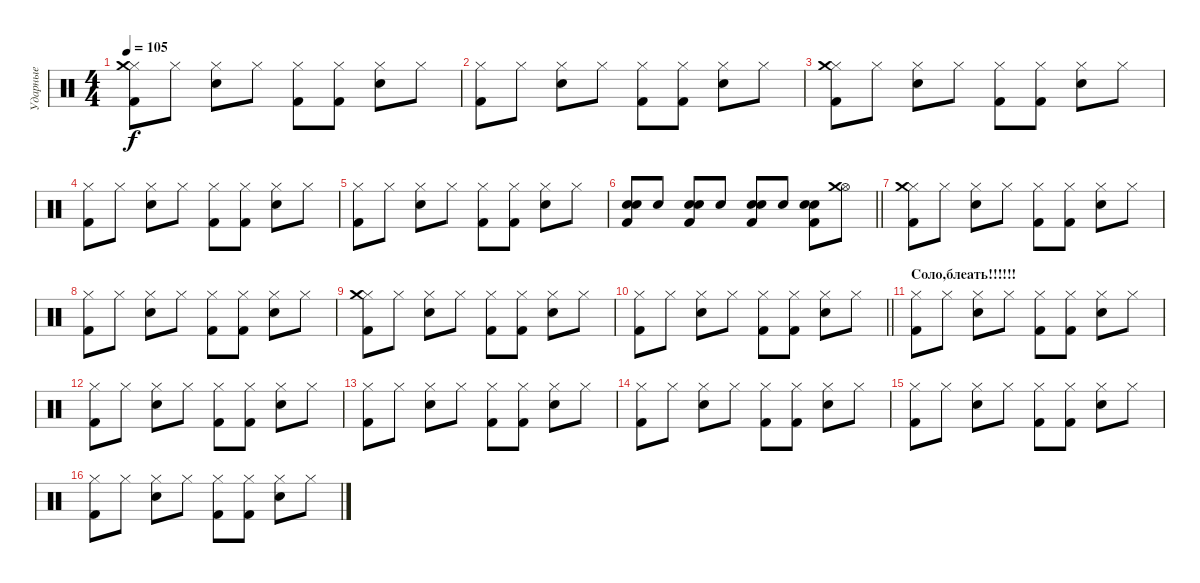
\track ("Ударные" "Ударные") {instrument percussion}
\staff {score}
\articulation defaults
\ts (4 4)
\tempo 105
\clef neutral
\ks c
("Hi-Hat (closed)" "Kick (hit) 2" "Crash medium (hit)").8{dy f} "Hi-Hat (closed)".8 ("Hi-Hat (closed)" "Electric Snare (hit)").8 "Hi-Hat (closed)".8 ("Hi-Hat (closed)" "Kick (hit) 2").8 ("Hi-Hat (closed)" "Kick (hit) 2").8 ("Hi-Hat (closed)" "Electric Snare (hit)").8 "Hi-Hat (closed)".8 |
("Hi-Hat (closed)" "Kick (hit) 2").8 "Hi-Hat (closed)".8 ("Hi-Hat (closed)" "Electric Snare (hit)").8 "Hi-Hat (closed)".8 ("Hi-Hat (closed)" "Kick (hit) 2").8 ("Hi-Hat (closed)" "Kick (hit) 2").8 ("Hi-Hat (closed)" "Electric Snare (hit)").8 "Hi-Hat (closed)".8 |
("Hi-Hat (closed)" "Kick (hit) 2" "Crash medium (hit)").8 "Hi-Hat (closed)".8 ("Hi-Hat (closed)" "Electric Snare (hit)").8 "Hi-Hat (closed)".8 ("Hi-Hat (closed)" "Kick (hit) 2").8 ("Hi-Hat (closed)" "Kick (hit) 2").8 ("Hi-Hat (closed)" "Electric Snare (hit)").8 "Hi-Hat (closed)".8 |
("Hi-Hat (closed)" "Kick (hit) 2").8 "Hi-Hat (closed)".8 ("Hi-Hat (closed)" "Electric Snare (hit)").8 "Hi-Hat (closed)".8 ("Hi-Hat (closed)" "Kick (hit) 2").8 ("Hi-Hat (closed)" "Kick (hit) 2").8 ("Hi-Hat (closed)" "Electric Snare (hit)").8 "Hi-Hat (closed)".8 |
("Hi-Hat (closed)" "Kick (hit) 2").8 "Hi-Hat (closed)".8 ("Hi-Hat (closed)" "Electric Snare (hit)").8 "Hi-Hat (closed)".8 ("Hi-Hat (closed)" "Kick (hit) 2").8 ("Hi-Hat (closed)" "Kick (hit) 2").8 ("Hi-Hat (closed)" "Electric Snare (hit)").8 "Hi-Hat (closed)".8 |
\barLineRight lightlight
("Electric Snare (hit)" "Kick (hit) 2" "Electric Snare (hit)").8 "Electric Snare (hit)".8 ("Electric Snare (hit)" "Kick (hit) 2" "Electric Snare (hit)").8 "Electric Snare (hit)".8 ("Electric Snare (hit)" "Kick (hit) 2" "Electric Snare (hit)").8 "Electric Snare (hit)".8 ("Electric Snare (hit)" "Kick (hit) 2" "Electric Snare (hit)").8 ("Hi-Hat (open)" "Crash medium (hit)").8 |
\section ("" "")
("Hi-Hat (closed)" "Kick (hit) 2" "Crash medium (hit)").8 "Hi-Hat (closed)".8 ("Hi-Hat (closed)" "Electric Snare (hit)").8 "Hi-Hat (closed)".8 ("Hi-Hat (closed)" "Kick (hit) 2").8 ("Hi-Hat (closed)" "Kick (hit) 2").8 ("Hi-Hat (closed)" "Electric Snare (hit)").8 "Hi-Hat (closed)".8 |
("Hi-Hat (closed)" "Kick (hit) 2").8 "Hi-Hat (closed)".8 ("Hi-Hat (closed)" "Electric Snare (hit)").8 "Hi-Hat (closed)".8 ("Hi-Hat (closed)" "Kick (hit) 2").8 ("Hi-Hat (closed)" "Kick (hit) 2").8 ("Hi-Hat (closed)" "Electric Snare (hit)").8 "Hi-Hat (closed)".8 |
("Hi-Hat (closed)" "Kick (hit) 2" "Crash medium (hit)").8 "Hi-Hat (closed)".8 ("Hi-Hat (closed)" "Electric Snare (hit)").8 "Hi-Hat (closed)".8 ("Hi-Hat (closed)" "Kick (hit) 2").8 ("Hi-Hat (closed)" "Kick (hit) 2").8 ("Hi-Hat (closed)" "Electric Snare (hit)").8 "Hi-Hat (closed)".8 |
\barLineRight lightlight
("Hi-Hat (closed)" "Kick (hit) 2").8 "Hi-Hat (closed)".8 ("Hi-Hat (closed)" "Electric Snare (hit)").8 "Hi-Hat (closed)".8 ("Hi-Hat (closed)" "Kick (hit) 2").8 ("Hi-Hat (closed)" "Kick (hit) 2").8 ("Hi-Hat (closed)" "Electric Snare (hit)").8 "Hi-Hat (closed)".8 |
\section ("" "Соло,блеать!!!!!!")
("Hi-Hat (closed)" "Kick (hit) 2").8 "Hi-Hat (closed)".8 ("Hi-Hat (closed)" "Electric Snare (hit)").8 "Hi-Hat (closed)".8 ("Hi-Hat (closed)" "Kick (hit) 2").8 ("Hi-Hat (closed)" "Kick (hit) 2").8 ("Hi-Hat (closed)" "Electric Snare (hit)").8 "Hi-Hat (closed)".8 |
("Hi-Hat (closed)" "Kick (hit) 2").8 "Hi-Hat (closed)".8 ("Hi-Hat (closed)" "Electric Snare (hit)").8 "Hi-Hat (closed)".8 ("Hi-Hat (closed)" "Kick (hit) 2").8 ("Hi-Hat (closed)" "Kick (hit) 2").8 ("Hi-Hat (closed)" "Electric Snare (hit)").8 "Hi-Hat (closed)".8 |
("Hi-Hat (closed)" "Kick (hit) 2").8 "Hi-Hat (closed)".8 ("Hi-Hat (closed)" "Electric Snare (hit)").8 "Hi-Hat (closed)".8 ("Hi-Hat (closed)" "Kick (hit) 2").8 ("Hi-Hat (closed)" "Kick (hit) 2").8 ("Hi-Hat (closed)" "Electric Snare (hit)").8 "Hi-Hat (closed)".8 |
("Hi-Hat (closed)" "Kick (hit) 2").8 "Hi-Hat (closed)".8 ("Hi-Hat (closed)" "Electric Snare (hit)").8 "Hi-Hat (closed)".8 ("Hi-Hat (closed)" "Kick (hit) 2").8 ("Hi-Hat (closed)" "Kick (hit) 2").8 ("Hi-Hat (closed)" "Electric Snare (hit)").8 "Hi-Hat (closed)".8 |
("Hi-Hat (closed)" "Kick (hit) 2").8 "Hi-Hat (closed)".8 ("Hi-Hat (closed)" "Electric Snare (hit)").8 "Hi-Hat (closed)".8 ("Hi-Hat (closed)" "Kick (hit) 2").8 ("Hi-Hat (closed)" "Kick (hit) 2").8 ("Hi-Hat (closed)" "Electric Snare (hit)").8 "Hi-Hat (closed)".8 |
("Hi-Hat (closed)" "Kick (hit) 2").8 "Hi-Hat (closed)".8 ("Hi-Hat (closed)" "Electric Snare (hit)").8 "Hi-Hat (closed)".8 ("Hi-Hat (closed)" "Kick (hit) 2").8 ("Hi-Hat (closed)" "Kick (hit) 2").8 ("Hi-Hat (closed)" "Electric Snare (hit)").8 "Hi-Hat (closed)".8
